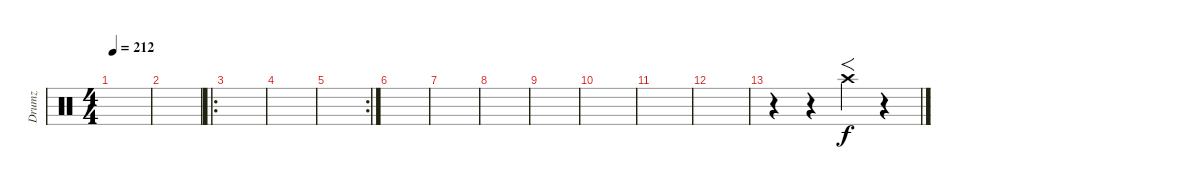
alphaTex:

\track ("Drumz" "Drumz") {instrument percussion}
\staff {score}
\articulation defaults
\ts (4 4)
\tempo 212
\clef neutral
\ks c
|
|
\ro
|
|
\rc 2
|
|
|
|
|
|
|
|
r.4 r.4 "Crash high (hit)".4{f} r.4
